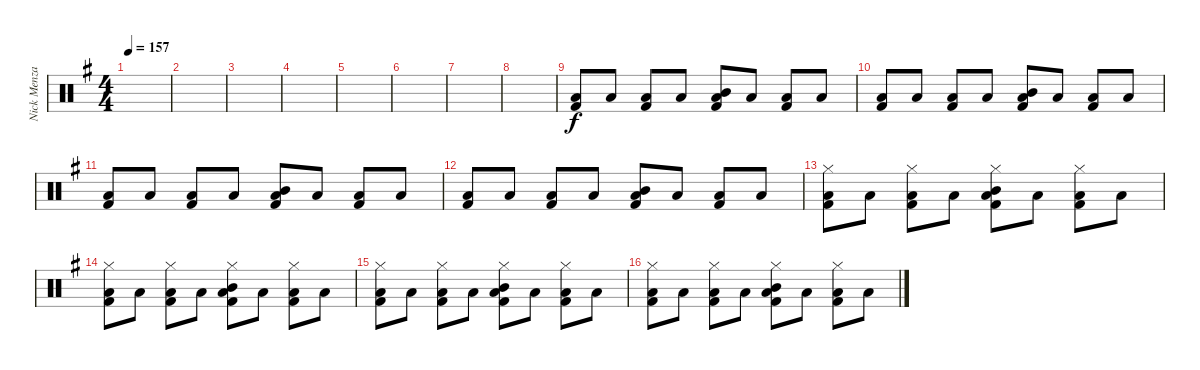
\track ("Nick Menza" "Nick Menza") {instrument percussion}
\staff {score}
\articulation defaults
\ts (4 4)
\tempo 157
\clef neutral
\ks g
|
|
|
|
|
|
|
|
("Low Floor Tom (hit)" "Kick (hit) 2").8 "Low Floor Tom (hit)".8 ("Low Floor Tom (hit)" "Kick (hit) 2").8 "Low Floor Tom (hit)".8 ("Low Floor Tom (hit)" "Kick (hit) 2" "Mid Tom (hit)").8 "Low Floor Tom (hit)".8 ("Low Floor Tom (hit)" "Kick (hit) 2").8 "Low Floor Tom (hit)".8 |
("Low Floor Tom (hit)" "Kick (hit) 2").8 "Low Floor Tom (hit)".8 ("Low Floor Tom (hit)" "Kick (hit) 2").8 "Low Floor Tom (hit)".8 ("Low Floor Tom (hit)" "Kick (hit) 2" "Mid Tom (hit)").8 "Low Floor Tom (hit)".8 ("Low Floor Tom (hit)" "Kick (hit) 2").8 "Low Floor Tom (hit)".8 |
("Low Floor Tom (hit)" "Kick (hit) 2").8 "Low Floor Tom (hit)".8 ("Low Floor Tom (hit)" "Kick (hit) 2").8 "Low Floor Tom (hit)".8 ("Low Floor Tom (hit)" "Kick (hit) 2" "Mid Tom (hit)").8 "Low Floor Tom (hit)".8 ("Low Floor Tom (hit)" "Kick (hit) 2").8 "Low Floor Tom (hit)".8 |
("Low Floor Tom (hit)" "Kick (hit) 2").8 "Low Floor Tom (hit)".8 ("Low Floor Tom (hit)" "Kick (hit) 2").8 "Low Floor Tom (hit)".8 ("Low Floor Tom (hit)" "Kick (hit) 2" "Mid Tom (hit)").8 "Low Floor Tom (hit)".8 ("Low Floor Tom (hit)" "Kick (hit) 2").8 "Low Floor Tom (hit)".8 |
("Hi-Hat (closed)" "Low Floor Tom (hit)" "Kick (hit) 2").8 "Low Floor Tom (hit)".8 ("Hi-Hat (closed)" "Low Floor Tom (hit)" "Kick (hit) 2").8 "Low Floor Tom (hit)".8 ("Hi-Hat (closed)" "Low Floor Tom (hit)" "Kick (hit) 2" "Mid Tom (hit)").8 "Low Floor Tom (hit)".8 ("Hi-Hat (closed)" "Low Floor Tom (hit)" "Kick (hit) 2").8 "Low Floor Tom (hit)".8 |
("Hi-Hat (closed)" "Low Floor Tom (hit)" "Kick (hit) 2").8 "Low Floor Tom (hit)".8 ("Hi-Hat (closed)" "Low Floor Tom (hit)" "Kick (hit) 2").8 "Low Floor Tom (hit)".8 ("Hi-Hat (closed)" "Low Floor Tom (hit)" "Kick (hit) 2" "Mid Tom (hit)").8 "Low Floor Tom (hit)".8 ("Hi-Hat (closed)" "Low Floor Tom (hit)" "Kick (hit) 2").8 "Low Floor Tom (hit)".8 |
("Hi-Hat (closed)" "Low Floor Tom (hit)" "Kick (hit) 2").8 "Low Floor Tom (hit)".8 ("Hi-Hat (closed)" "Low Floor Tom (hit)" "Kick (hit) 2").8 "Low Floor Tom (hit)".8 ("Hi-Hat (closed)" "Low Floor Tom (hit)" "Kick (hit) 2" "Mid Tom (hit)").8 "Low Floor Tom (hit)".8 ("Hi-Hat (closed)" "Low Floor Tom (hit)" "Kick (hit) 2").8 "Low Floor Tom (hit)".8 |
("Hi-Hat (closed)" "Low Floor Tom (hit)" "Kick (hit) 2").8 "Low Floor Tom (hit)".8 ("Hi-Hat (closed)" "Low Floor Tom (hit)" "Kick (hit) 2").8 "Low Floor Tom (hit)".8 ("Hi-Hat (closed)" "Low Floor Tom (hit)" "Kick (hit) 2" "Mid Tom (hit)").8 "Low Floor Tom (hit)".8 ("Hi-Hat (closed)" "Low Floor Tom (hit)" "Kick (hit) 2").8 "Low Floor Tom (hit)".8
